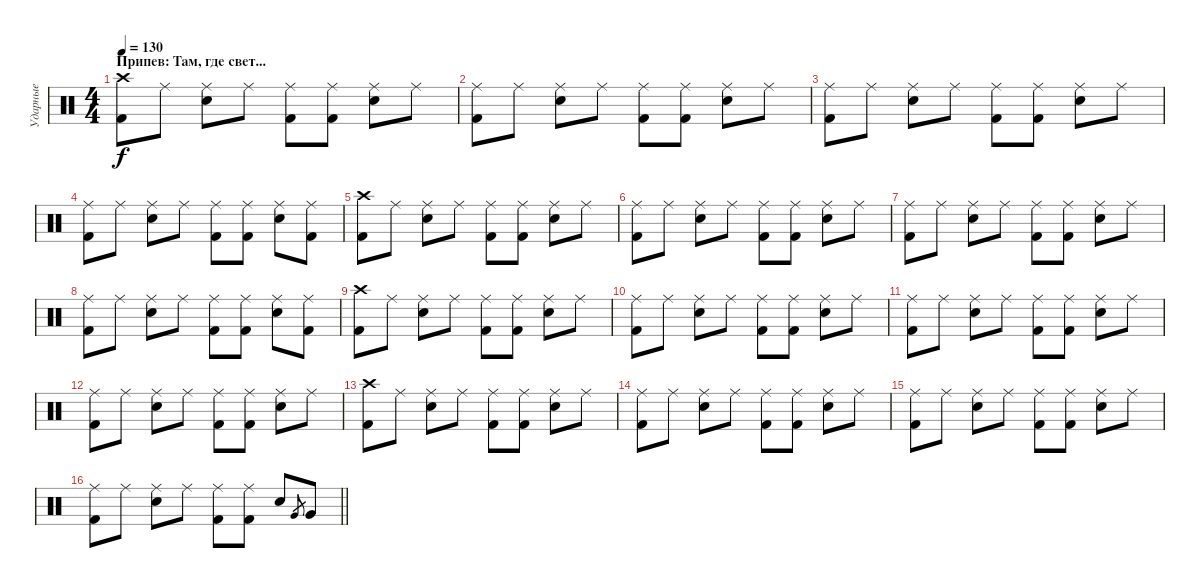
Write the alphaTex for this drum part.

\track ("Ударные" "Ударные") {instrument percussion}
\staff {score}
\articulation defaults
\ts (4 4)
\section ("" "Припев: Там, где свет...")
\tempo 130
\clef neutral
\ks c
("Crash high (hit)" "Kick (hit) 2").8{dy f} "Ride (middle)".8 ("Ride (middle)" "Snare (hit) 2").8 "Ride (middle)".8 ("Ride (middle)" "Kick (hit) 2").8 ("Ride (middle)" "Kick (hit) 2").8 ("Ride (middle)" "Snare (hit) 2").8 "Ride (middle)".8 |
("Ride (middle)" "Kick (hit) 2").8 "Ride (middle)".8 ("Ride (middle)" "Snare (hit) 2").8 "Ride (middle)".8 ("Ride (middle)" "Kick (hit) 2").8 ("Ride (middle)" "Kick (hit) 2").8 ("Ride (middle)" "Snare (hit) 2").8 "Ride (middle)".8 |
("Ride (middle)" "Kick (hit) 2").8 "Ride (middle)".8 ("Ride (middle)" "Snare (hit) 2").8 "Ride (middle)".8 ("Ride (middle)" "Kick (hit) 2").8 ("Ride (middle)" "Kick (hit) 2").8 ("Ride (middle)" "Snare (hit) 2").8 "Ride (middle)".8 |
("Ride (middle)" "Kick (hit) 2").8 "Ride (middle)".8 ("Ride (middle)" "Snare (hit) 2").8 "Ride (middle)".8 ("Ride (middle)" "Kick (hit) 2").8 ("Ride (middle)" "Kick (hit) 2").8 ("Ride (middle)" "Snare (hit) 2").8 ("Ride (middle)" "Kick (hit) 2").8 |
("Crash high (hit)" "Kick (hit) 2").8 "Ride (middle)".8 ("Ride (middle)" "Snare (hit) 2").8 "Ride (middle)".8 ("Ride (middle)" "Kick (hit) 2").8 ("Ride (middle)" "Kick (hit) 2").8 ("Ride (middle)" "Snare (hit) 2").8 "Ride (middle)".8 |
("Ride (middle)" "Kick (hit) 2").8 "Ride (middle)".8 ("Ride (middle)" "Snare (hit) 2").8 "Ride (middle)".8 ("Ride (middle)" "Kick (hit) 2").8 ("Ride (middle)" "Kick (hit) 2").8 ("Ride (middle)" "Snare (hit) 2").8 "Ride (middle)".8 |
("Ride (middle)" "Kick (hit) 2").8 "Ride (middle)".8 ("Ride (middle)" "Snare (hit) 2").8 "Ride (middle)".8 ("Ride (middle)" "Kick (hit) 2").8 ("Ride (middle)" "Kick (hit) 2").8 ("Ride (middle)" "Snare (hit) 2").8 "Ride (middle)".8 |
("Ride (middle)" "Kick (hit) 2").8 "Ride (middle)".8 ("Ride (middle)" "Snare (hit) 2").8 "Ride (middle)".8 ("Ride (middle)" "Kick (hit) 2").8 ("Ride (middle)" "Kick (hit) 2").8 ("Ride (middle)" "Snare (hit) 2").8 ("Ride (middle)" "Kick (hit) 2").8 |
("Crash high (hit)" "Kick (hit) 2").8 "Ride (middle)".8 ("Ride (middle)" "Snare (hit) 2").8 "Ride (middle)".8 ("Ride (middle)" "Kick (hit) 2").8 ("Ride (middle)" "Kick (hit) 2").8 ("Ride (middle)" "Snare (hit) 2").8 "Ride (middle)".8 |
("Ride (middle)" "Kick (hit) 2").8 "Ride (middle)".8 ("Ride (middle)" "Snare (hit) 2").8 "Ride (middle)".8 ("Ride (middle)" "Kick (hit) 2").8 ("Ride (middle)" "Kick (hit) 2").8 ("Ride (middle)" "Snare (hit) 2").8 "Ride (middle)".8 |
("Ride (middle)" "Kick (hit) 2").8 "Ride (middle)".8 ("Ride (middle)" "Snare (hit) 2").8 "Ride (middle)".8 ("Ride (middle)" "Kick (hit) 2").8 ("Ride (middle)" "Kick (hit) 2").8 ("Ride (middle)" "Snare (hit) 2").8 "Ride (middle)".8 |
("Ride (middle)" "Kick (hit) 2").8 "Ride (middle)".8 ("Ride (middle)" "Snare (hit) 2").8 "Ride (middle)".8 ("Ride (middle)" "Kick (hit) 2").8 ("Ride (middle)" "Kick (hit) 2").8 ("Ride (middle)" "Snare (hit) 2").8 "Ride (middle)".8 |
("Crash high (hit)" "Kick (hit) 2").8 "Ride (middle)".8 ("Ride (middle)" "Snare (hit) 2").8 "Ride (middle)".8 ("Ride (middle)" "Kick (hit) 2").8 ("Ride (middle)" "Kick (hit) 2").8 ("Ride (middle)" "Snare (hit) 2").8 "Ride (middle)".8 |
("Ride (middle)" "Kick (hit) 2").8 "Ride (middle)".8 ("Ride (middle)" "Snare (hit) 2").8 "Ride (middle)".8 ("Ride (middle)" "Kick (hit) 2").8 ("Ride (middle)" "Kick (hit) 2").8 ("Ride (middle)" "Snare (hit) 2").8 "Ride (middle)".8 |
("Ride (middle)" "Kick (hit) 2").8 "Ride (middle)".8 ("Ride (middle)" "Snare (hit) 2").8 "Ride (middle)".8 ("Ride (middle)" "Kick (hit) 2").8 ("Ride (middle)" "Kick (hit) 2").8 ("Ride (middle)" "Snare (hit) 2").8 "Ride (middle)".8 |
\barLineRight lightlight
("Ride (middle)" "Kick (hit) 2").8 "Ride (middle)".8 ("Ride (middle)" "Snare (hit) 2").8 "Ride (middle)".8 ("Ride (middle)" "Kick (hit) 2").8 ("Ride (middle)" "Kick (hit) 2").8 "Snare (hit) 2".8 "Very Low Tom (hit)".8{gr} "Very Low Tom (hit)".8
